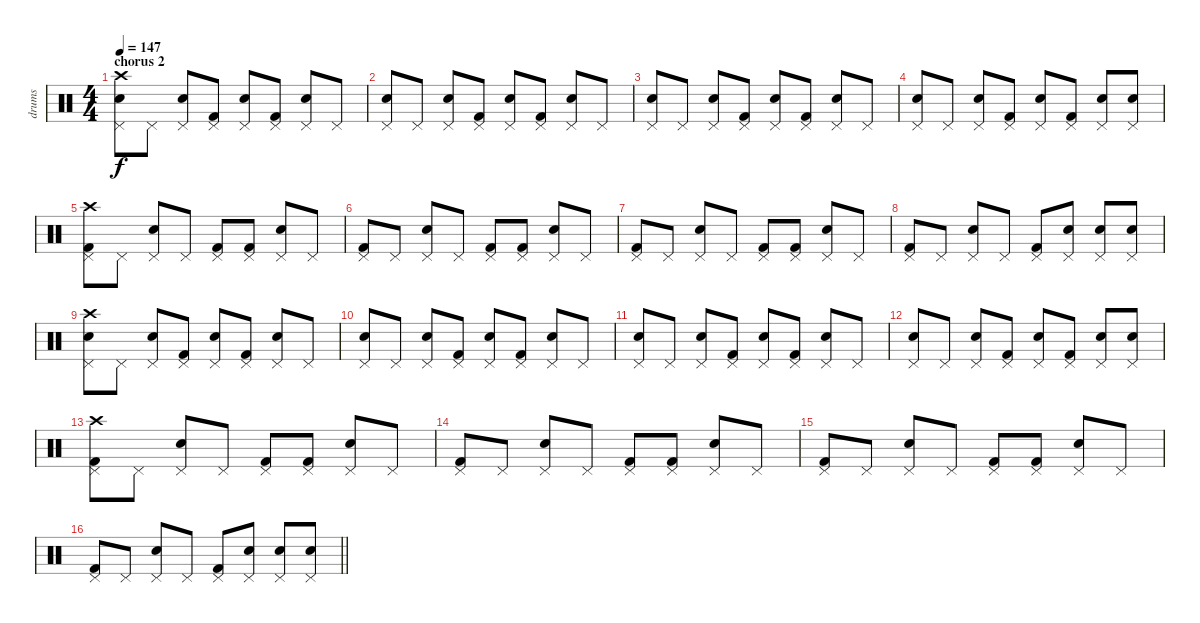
\track ("drums" "drums") {instrument percussion}
\staff {score}
\articulation defaults
\ts (4 4)
\section ("" "chorus 2")
\tempo 147
\clef neutral
\ks c
("Crash high (hit)" "Snare (hit) 2" "Pedal Hi-Hat (hit)").8{dy f} "Pedal Hi-Hat (hit)".8 ("Snare (hit) 2" "Pedal Hi-Hat (hit)").8 ("Kick (hit) 2" "Pedal Hi-Hat (hit)").8 ("Snare (hit) 2" "Pedal Hi-Hat (hit)").8 ("Kick (hit) 2" "Pedal Hi-Hat (hit)").8 ("Snare (hit) 2" "Pedal Hi-Hat (hit)").8 "Pedal Hi-Hat (hit)".8 |
("Snare (hit) 2" "Pedal Hi-Hat (hit)").8 "Pedal Hi-Hat (hit)".8 ("Snare (hit) 2" "Pedal Hi-Hat (hit)").8 ("Kick (hit) 2" "Pedal Hi-Hat (hit)").8 ("Snare (hit) 2" "Pedal Hi-Hat (hit)").8 ("Kick (hit) 2" "Pedal Hi-Hat (hit)").8 ("Snare (hit) 2" "Pedal Hi-Hat (hit)").8 "Pedal Hi-Hat (hit)".8 |
("Snare (hit) 2" "Pedal Hi-Hat (hit)").8 "Pedal Hi-Hat (hit)".8 ("Snare (hit) 2" "Pedal Hi-Hat (hit)").8 ("Kick (hit) 2" "Pedal Hi-Hat (hit)").8 ("Snare (hit) 2" "Pedal Hi-Hat (hit)").8 ("Kick (hit) 2" "Pedal Hi-Hat (hit)").8 ("Snare (hit) 2" "Pedal Hi-Hat (hit)").8 "Pedal Hi-Hat (hit)".8 |
("Snare (hit) 2" "Pedal Hi-Hat (hit)").8 "Pedal Hi-Hat (hit)".8 ("Snare (hit) 2" "Pedal Hi-Hat (hit)").8 ("Kick (hit) 2" "Pedal Hi-Hat (hit)").8 ("Snare (hit) 2" "Pedal Hi-Hat (hit)").8 ("Kick (hit) 2" "Pedal Hi-Hat (hit)").8 ("Snare (hit) 2" "Pedal Hi-Hat (hit)").8 ("Snare (hit) 2" "Pedal Hi-Hat (hit)").8 |
("Kick (hit) 2" "Crash high (hit)" "Pedal Hi-Hat (hit)").8 "Pedal Hi-Hat (hit)".8 ("Snare (hit) 2" "Pedal Hi-Hat (hit)").8 "Pedal Hi-Hat (hit)".8 ("Kick (hit) 2" "Pedal Hi-Hat (hit)").8 ("Kick (hit) 2" "Pedal Hi-Hat (hit)").8 ("Snare (hit) 2" "Pedal Hi-Hat (hit)").8 "Pedal Hi-Hat (hit)".8 |
("Kick (hit) 2" "Pedal Hi-Hat (hit)").8 "Pedal Hi-Hat (hit)".8 ("Snare (hit) 2" "Pedal Hi-Hat (hit)").8 "Pedal Hi-Hat (hit)".8 ("Kick (hit) 2" "Pedal Hi-Hat (hit)").8 ("Kick (hit) 2" "Pedal Hi-Hat (hit)").8 ("Snare (hit) 2" "Pedal Hi-Hat (hit)").8 "Pedal Hi-Hat (hit)".8 |
("Kick (hit) 2" "Pedal Hi-Hat (hit)").8 "Pedal Hi-Hat (hit)".8 ("Snare (hit) 2" "Pedal Hi-Hat (hit)").8 "Pedal Hi-Hat (hit)".8 ("Kick (hit) 2" "Pedal Hi-Hat (hit)").8 ("Kick (hit) 2" "Pedal Hi-Hat (hit)").8 ("Snare (hit) 2" "Pedal Hi-Hat (hit)").8 "Pedal Hi-Hat (hit)".8 |
("Kick (hit) 2" "Pedal Hi-Hat (hit)").8 "Pedal Hi-Hat (hit)".8 ("Snare (hit) 2" "Pedal Hi-Hat (hit)").8 "Pedal Hi-Hat (hit)".8 ("Kick (hit) 2" "Pedal Hi-Hat (hit)").8 ("Snare (hit) 2" "Pedal Hi-Hat (hit)").8 ("Snare (hit) 2" "Pedal Hi-Hat (hit)").8 ("Snare (hit) 2" "Pedal Hi-Hat (hit)").8 |
("Crash high (hit)" "Snare (hit) 2" "Pedal Hi-Hat (hit)").8 "Pedal Hi-Hat (hit)".8 ("Snare (hit) 2" "Pedal Hi-Hat (hit)").8 ("Kick (hit) 2" "Pedal Hi-Hat (hit)").8 ("Snare (hit) 2" "Pedal Hi-Hat (hit)").8 ("Kick (hit) 2" "Pedal Hi-Hat (hit)").8 ("Snare (hit) 2" "Pedal Hi-Hat (hit)").8 "Pedal Hi-Hat (hit)".8 |
("Snare (hit) 2" "Pedal Hi-Hat (hit)").8 "Pedal Hi-Hat (hit)".8 ("Snare (hit) 2" "Pedal Hi-Hat (hit)").8 ("Kick (hit) 2" "Pedal Hi-Hat (hit)").8 ("Snare (hit) 2" "Pedal Hi-Hat (hit)").8 ("Kick (hit) 2" "Pedal Hi-Hat (hit)").8 ("Snare (hit) 2" "Pedal Hi-Hat (hit)").8 "Pedal Hi-Hat (hit)".8 |
("Snare (hit) 2" "Pedal Hi-Hat (hit)").8 "Pedal Hi-Hat (hit)".8 ("Snare (hit) 2" "Pedal Hi-Hat (hit)").8 ("Kick (hit) 2" "Pedal Hi-Hat (hit)").8 ("Snare (hit) 2" "Pedal Hi-Hat (hit)").8 ("Kick (hit) 2" "Pedal Hi-Hat (hit)").8 ("Snare (hit) 2" "Pedal Hi-Hat (hit)").8 "Pedal Hi-Hat (hit)".8 |
("Snare (hit) 2" "Pedal Hi-Hat (hit)").8 "Pedal Hi-Hat (hit)".8 ("Snare (hit) 2" "Pedal Hi-Hat (hit)").8 ("Kick (hit) 2" "Pedal Hi-Hat (hit)").8 ("Snare (hit) 2" "Pedal Hi-Hat (hit)").8 ("Kick (hit) 2" "Pedal Hi-Hat (hit)").8 ("Snare (hit) 2" "Pedal Hi-Hat (hit)").8 ("Snare (hit) 2" "Pedal Hi-Hat (hit)").8 |
("Kick (hit) 2" "Crash high (hit)" "Pedal Hi-Hat (hit)").8 "Pedal Hi-Hat (hit)".8 ("Snare (hit) 2" "Pedal Hi-Hat (hit)").8 "Pedal Hi-Hat (hit)".8 ("Kick (hit) 2" "Pedal Hi-Hat (hit)").8 ("Kick (hit) 2" "Pedal Hi-Hat (hit)").8 ("Snare (hit) 2" "Pedal Hi-Hat (hit)").8 "Pedal Hi-Hat (hit)".8 |
("Kick (hit) 2" "Pedal Hi-Hat (hit)").8 "Pedal Hi-Hat (hit)".8 ("Snare (hit) 2" "Pedal Hi-Hat (hit)").8 "Pedal Hi-Hat (hit)".8 ("Kick (hit) 2" "Pedal Hi-Hat (hit)").8 ("Kick (hit) 2" "Pedal Hi-Hat (hit)").8 ("Snare (hit) 2" "Pedal Hi-Hat (hit)").8 "Pedal Hi-Hat (hit)".8 |
("Kick (hit) 2" "Pedal Hi-Hat (hit)").8 "Pedal Hi-Hat (hit)".8 ("Snare (hit) 2" "Pedal Hi-Hat (hit)").8 "Pedal Hi-Hat (hit)".8 ("Kick (hit) 2" "Pedal Hi-Hat (hit)").8 ("Kick (hit) 2" "Pedal Hi-Hat (hit)").8 ("Snare (hit) 2" "Pedal Hi-Hat (hit)").8 "Pedal Hi-Hat (hit)".8 |
\barLineRight lightlight
("Kick (hit) 2" "Pedal Hi-Hat (hit)").8 "Pedal Hi-Hat (hit)".8 ("Snare (hit) 2" "Pedal Hi-Hat (hit)").8 "Pedal Hi-Hat (hit)".8 ("Kick (hit) 2" "Pedal Hi-Hat (hit)").8 ("Snare (hit) 2" "Pedal Hi-Hat (hit)").8 ("Snare (hit) 2" "Pedal Hi-Hat (hit)").8 ("Snare (hit) 2" "Pedal Hi-Hat (hit)").8
